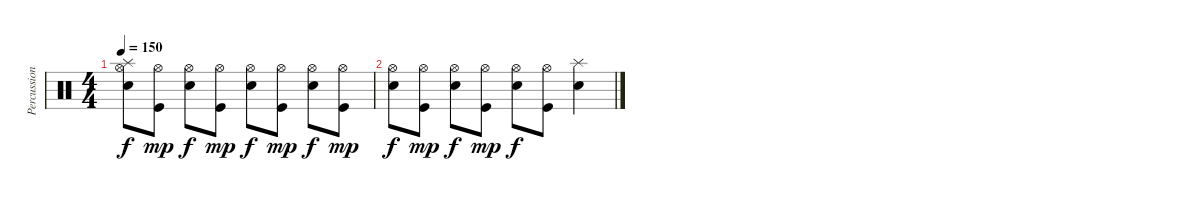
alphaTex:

\track ("Percussions" "Percussion") {instrument percussion}
\staff {score}
\articulation defaults
\ts (4 4)
\tempo 150
\clef neutral
\ks c
("Splash (hit)" "Hi-Hat (open)" "Electric Snare (hit)").8{dy f} ("Hi-Hat (open)" "Kick (hit)").8{dy mp} ("Hi-Hat (open)" "Electric Snare (hit)").8{dy f} ("Hi-Hat (open)" "Kick (hit)").8{dy mp} ("Hi-Hat (open)" "Electric Snare (hit)").8{dy f} ("Hi-Hat (open)" "Kick (hit)").8{dy mp} ("Hi-Hat (open)" "Electric Snare (hit)").8{dy f} ("Hi-Hat (open)" "Kick (hit)").8{dy mp} |
("Hi-Hat (open)" "Electric Snare (hit)").8{dy f} ("Hi-Hat (open)" "Kick (hit)").8{dy mp} ("Hi-Hat (open)" "Electric Snare (hit)").8{dy f} ("Hi-Hat (open)" "Kick (hit)").8{dy mp} ("Hi-Hat (open)" "Electric Snare (hit)").8{dy f} ("Hi-Hat (open)" "Kick (hit)").8 ("Splash (hit)" "Electric Snare (hit)").4
